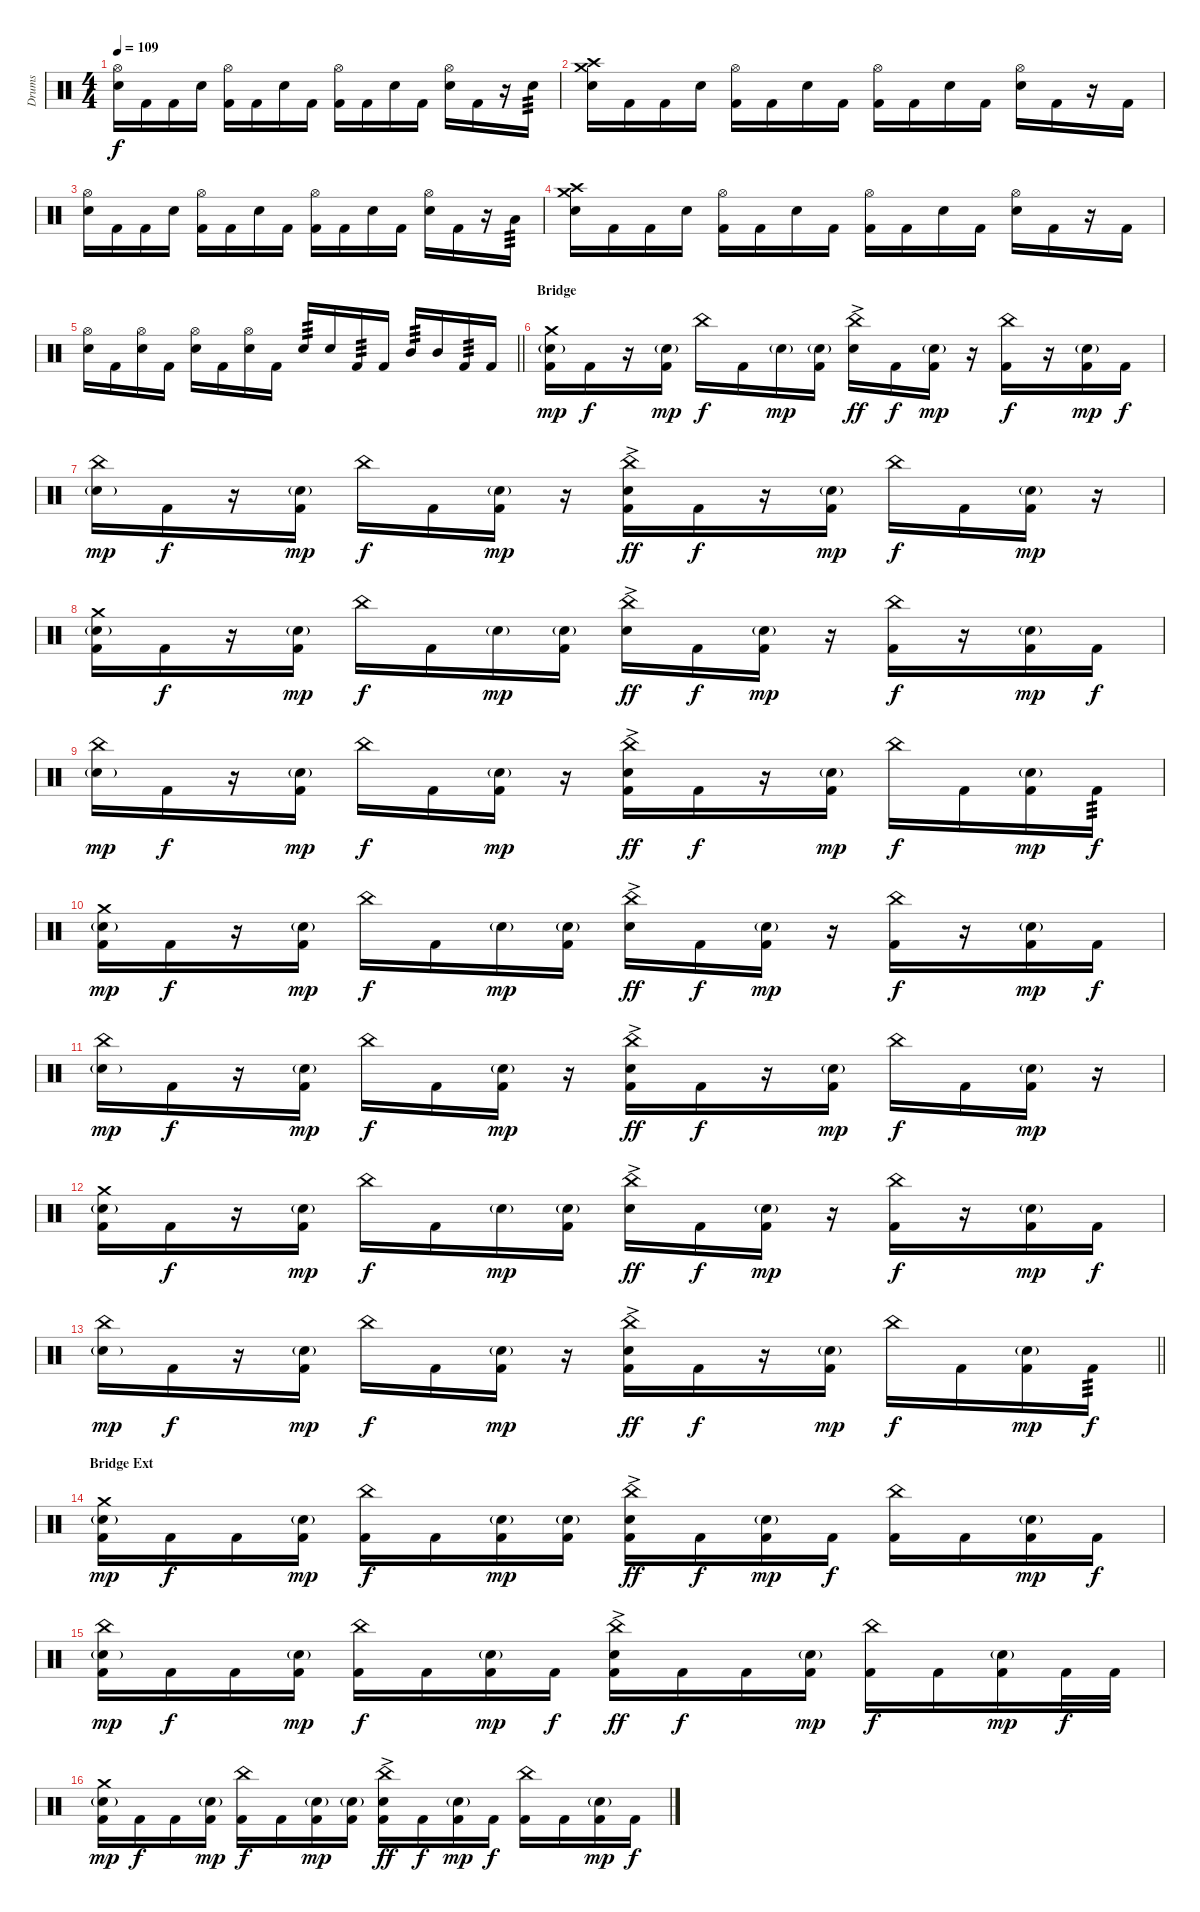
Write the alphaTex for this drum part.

\track ("Drums" "Drums") {instrument percussion}
\staff {score}
\articulation defaults
\ts (4 4)
\tempo 109
\clef neutral
\ks c
("Hi-Hat (open)" "Snare (hit) 2").16{dy f} "Kick (hit) 2".16 "Kick (hit) 2".16 "Snare (hit) 2".16 ("Hi-Hat (open)" "Kick (hit) 2").16 "Kick (hit) 2".16 "Snare (hit) 2".16 "Kick (hit) 2".16 ("Hi-Hat (open)" "Kick (hit) 2").16 "Kick (hit) 2".16 "Snare (hit) 2".16 "Kick (hit) 2".16 ("Hi-Hat (open)" "Snare (hit) 2").16 "Kick (hit) 2".16 r.16 "Snare (hit) 2".16{tp 3} |
("Crash medium (hit)" "Crash high (hit)" "Snare (hit) 2").16 "Kick (hit) 2".16 "Kick (hit) 2".16 "Snare (hit) 2".16 ("Hi-Hat (open)" "Kick (hit) 2").16 "Kick (hit) 2".16 "Snare (hit) 2".16 "Kick (hit) 2".16 ("Hi-Hat (open)" "Kick (hit) 2").16 "Kick (hit) 2".16 "Snare (hit) 2".16 "Kick (hit) 2".16 ("Hi-Hat (open)" "Snare (hit) 2").16 "Kick (hit) 2".16 r.16 "Kick (hit) 2".16 |
("Hi-Hat (open)" "Snare (hit) 2").16 "Kick (hit) 2".16 "Kick (hit) 2".16 "Snare (hit) 2".16 ("Hi-Hat (open)" "Kick (hit) 2").16 "Kick (hit) 2".16 "Snare (hit) 2".16 "Kick (hit) 2".16 ("Hi-Hat (open)" "Kick (hit) 2").16 "Kick (hit) 2".16 "Snare (hit) 2".16 "Kick (hit) 2".16 ("Hi-Hat (open)" "Snare (hit) 2").16 "Kick (hit) 2".16 r.16 "Low Tom (hit)".16{tp 3} |
("Crash medium (hit)" "Crash high (hit)" "Snare (hit) 2").16 "Kick (hit) 2".16 "Kick (hit) 2".16 "Snare (hit) 2".16 ("Hi-Hat (open)" "Kick (hit) 2").16 "Kick (hit) 2".16 "Snare (hit) 2".16 "Kick (hit) 2".16 ("Hi-Hat (open)" "Kick (hit) 2").16 "Kick (hit) 2".16 "Snare (hit) 2".16 "Kick (hit) 2".16 ("Hi-Hat (open)" "Snare (hit) 2").16 "Kick (hit) 2".16 r.16 "Kick (hit) 2".16 |
\barLineRight lightlight
("Hi-Hat (open)" "Snare (hit) 2").16 "Kick (hit) 2".16 ("Hi-Hat (open)" "Snare (hit) 2").16 "Kick (hit) 2".16 ("Hi-Hat (open)" "Snare (hit) 2").16 "Kick (hit) 2".16 ("Hi-Hat (open)" "Snare (hit) 2").16 "Kick (hit) 2".16 "Snare (hit) 2".16{tp 3} "Snare (hit) 2".16 "Kick (hit) 2".16{tp 3} "Kick (hit) 2".16 "Mid Tom (hit)".16{tp 3} "Mid Tom (hit)".16 "Kick (hit) 2".16{tp 3} "Kick (hit) 2".16 |
\section ("" "Bridge")
("Crash medium (hit)" "Snare (hit) 2"{g} "Kick (hit) 2").16{dy mp} "Kick (hit) 2".16{dy f} r.16 ("Snare (hit) 2"{g} "Kick (hit) 2").16{dy mp} "China (hit)".16{dy f} "Kick (hit) 2".16 "Snare (hit) 2"{g}.16{dy mp} ("Snare (hit) 2"{g} "Kick (hit) 2").16 ("China (hit)" "Snare (hit) 2"{ac}).16{dy ff} "Kick (hit) 2".16{dy f} ("Snare (hit) 2"{g} "Kick (hit) 2").16{dy mp} r.16 ("China (hit)" "Kick (hit) 2").16{dy f} r.16 ("Snare (hit) 2"{g} "Kick (hit) 2").16{dy mp} "Kick (hit) 2".16{dy f} |
("China (hit)" "Snare (hit) 2"{g}).16{dy mp} "Kick (hit) 2".16{dy f} r.16 ("Snare (hit) 2"{g} "Kick (hit) 2").16{dy mp} "China (hit)".16{dy f} "Kick (hit) 2".16 ("Snare (hit) 2"{g} "Kick (hit) 2").16{dy mp} r.16 ("China (hit)" "Snare (hit) 2"{ac} "Kick (hit) 2").16{dy ff} "Kick (hit) 2".16{dy f} r.16 ("Snare (hit) 2"{g} "Kick (hit) 2").16{dy mp} "China (hit)".16{dy f} "Kick (hit) 2".16 ("Snare (hit) 2"{g} "Kick (hit) 2").16{dy mp} r.16 |
("Crash medium (hit)" "Snare (hit) 2"{g} "Kick (hit) 2").16 "Kick (hit) 2".16{dy f} r.16 ("Snare (hit) 2"{g} "Kick (hit) 2").16{dy mp} "China (hit)".16{dy f} "Kick (hit) 2".16 "Snare (hit) 2"{g}.16{dy mp} ("Snare (hit) 2"{g} "Kick (hit) 2").16 ("China (hit)" "Snare (hit) 2"{ac}).16{dy ff} "Kick (hit) 2".16{dy f} ("Snare (hit) 2"{g} "Kick (hit) 2").16{dy mp} r.16 ("China (hit)" "Kick (hit) 2").16{dy f} r.16 ("Snare (hit) 2"{g} "Kick (hit) 2").16{dy mp} "Kick (hit) 2".16{dy f} |
("China (hit)" "Snare (hit) 2"{g}).16{dy mp} "Kick (hit) 2".16{dy f} r.16 ("Snare (hit) 2"{g} "Kick (hit) 2").16{dy mp} "China (hit)".16{dy f} "Kick (hit) 2".16 ("Snare (hit) 2"{g} "Kick (hit) 2").16{dy mp} r.16 ("China (hit)" "Snare (hit) 2"{ac} "Kick (hit) 2").16{dy ff} "Kick (hit) 2".16{dy f} r.16 ("Snare (hit) 2"{g} "Kick (hit) 2").16{dy mp} "China (hit)".16{dy f} "Kick (hit) 2".16 ("Snare (hit) 2"{g} "Kick (hit) 2").16{dy mp} "Kick (hit) 2".16{tp 3 dy f} |
("Crash medium (hit)" "Snare (hit) 2"{g} "Kick (hit) 2").16{dy mp} "Kick (hit) 2".16{dy f} r.16 ("Snare (hit) 2"{g} "Kick (hit) 2").16{dy mp} "China (hit)".16{dy f} "Kick (hit) 2".16 "Snare (hit) 2"{g}.16{dy mp} ("Snare (hit) 2"{g} "Kick (hit) 2").16 ("China (hit)" "Snare (hit) 2"{ac}).16{dy ff} "Kick (hit) 2".16{dy f} ("Snare (hit) 2"{g} "Kick (hit) 2").16{dy mp} r.16 ("China (hit)" "Kick (hit) 2").16{dy f} r.16 ("Snare (hit) 2"{g} "Kick (hit) 2").16{dy mp} "Kick (hit) 2".16{dy f} |
("China (hit)" "Snare (hit) 2"{g}).16{dy mp} "Kick (hit) 2".16{dy f} r.16 ("Snare (hit) 2"{g} "Kick (hit) 2").16{dy mp} "China (hit)".16{dy f} "Kick (hit) 2".16 ("Snare (hit) 2"{g} "Kick (hit) 2").16{dy mp} r.16 ("China (hit)" "Snare (hit) 2"{ac} "Kick (hit) 2").16{dy ff} "Kick (hit) 2".16{dy f} r.16 ("Snare (hit) 2"{g} "Kick (hit) 2").16{dy mp} "China (hit)".16{dy f} "Kick (hit) 2".16 ("Snare (hit) 2"{g} "Kick (hit) 2").16{dy mp} r.16 |
("Crash medium (hit)" "Snare (hit) 2"{g} "Kick (hit) 2").16 "Kick (hit) 2".16{dy f} r.16 ("Snare (hit) 2"{g} "Kick (hit) 2").16{dy mp} "China (hit)".16{dy f} "Kick (hit) 2".16 "Snare (hit) 2"{g}.16{dy mp} ("Snare (hit) 2"{g} "Kick (hit) 2").16 ("China (hit)" "Snare (hit) 2"{ac}).16{dy ff} "Kick (hit) 2".16{dy f} ("Snare (hit) 2"{g} "Kick (hit) 2").16{dy mp} r.16 ("China (hit)" "Kick (hit) 2").16{dy f} r.16 ("Snare (hit) 2"{g} "Kick (hit) 2").16{dy mp} "Kick (hit) 2".16{dy f} |
\barLineRight lightlight
("China (hit)" "Snare (hit) 2"{g}).16{dy mp} "Kick (hit) 2".16{dy f} r.16 ("Snare (hit) 2"{g} "Kick (hit) 2").16{dy mp} "China (hit)".16{dy f} "Kick (hit) 2".16 ("Snare (hit) 2"{g} "Kick (hit) 2").16{dy mp} r.16 ("China (hit)" "Snare (hit) 2"{ac} "Kick (hit) 2").16{dy ff} "Kick (hit) 2".16{dy f} r.16 ("Snare (hit) 2"{g} "Kick (hit) 2").16{dy mp} "China (hit)".16{dy f} "Kick (hit) 2".16 ("Snare (hit) 2"{g} "Kick (hit) 2").16{dy mp} "Kick (hit) 2".16{tp 3 dy f} |
\section ("" "Bridge Ext")
("Crash medium (hit)" "Snare (hit) 2"{g} "Kick (hit) 2").16{dy mp} "Kick (hit) 2".16{dy f} "Kick (hit) 2".16 ("Snare (hit) 2"{g} "Kick (hit) 2").16{dy mp} ("China (hit)" "Kick (hit) 2").16{dy f} "Kick (hit) 2".16 ("Snare (hit) 2"{g} "Kick (hit) 2").16{dy mp} ("Snare (hit) 2"{g} "Kick (hit) 2").16 ("China (hit)" "Snare (hit) 2"{ac} "Kick (hit) 2").16{dy ff} "Kick (hit) 2".16{dy f} ("Snare (hit) 2"{g} "Kick (hit) 2").16{dy mp} "Kick (hit) 2".16{dy f} ("China (hit)" "Kick (hit) 2").16 "Kick (hit) 2".16 ("Snare (hit) 2"{g} "Kick (hit) 2").16{dy mp} "Kick (hit) 2".16{dy f} |
("China (hit)" "Snare (hit) 2"{g} "Kick (hit) 2").16{dy mp} "Kick (hit) 2".16{dy f} "Kick (hit) 2".16 ("Snare (hit) 2"{g} "Kick (hit) 2").16{dy mp} ("China (hit)" "Kick (hit) 2").16{dy f} "Kick (hit) 2".16 ("Snare (hit) 2"{g} "Kick (hit) 2").16{dy mp} "Kick (hit) 2".16{dy f} ("China (hit)" "Snare (hit) 2"{ac} "Kick (hit) 2").16{dy ff} "Kick (hit) 2".16{dy f} "Kick (hit) 2".16 ("Snare (hit) 2"{g} "Kick (hit) 2").16{dy mp} ("China (hit)" "Kick (hit) 2").16{dy f} "Kick (hit) 2".16 ("Snare (hit) 2"{g} "Kick (hit) 2").16{dy mp} "Kick (hit) 2".32{dy f} "Kick (hit) 2".32 |
("Crash medium (hit)" "Snare (hit) 2"{g} "Kick (hit) 2").16{dy mp} "Kick (hit) 2".16{dy f} "Kick (hit) 2".16 ("Snare (hit) 2"{g} "Kick (hit) 2").16{dy mp} ("China (hit)" "Kick (hit) 2").16{dy f} "Kick (hit) 2".16 ("Snare (hit) 2"{g} "Kick (hit) 2").16{dy mp} ("Snare (hit) 2"{g} "Kick (hit) 2").16 ("China (hit)" "Snare (hit) 2"{ac} "Kick (hit) 2").16{dy ff} "Kick (hit) 2".16{dy f} ("Snare (hit) 2"{g} "Kick (hit) 2").16{dy mp} "Kick (hit) 2".16{dy f} ("China (hit)" "Kick (hit) 2").16 "Kick (hit) 2".16 ("Snare (hit) 2"{g} "Kick (hit) 2").16{dy mp} "Kick (hit) 2".16{dy f}
